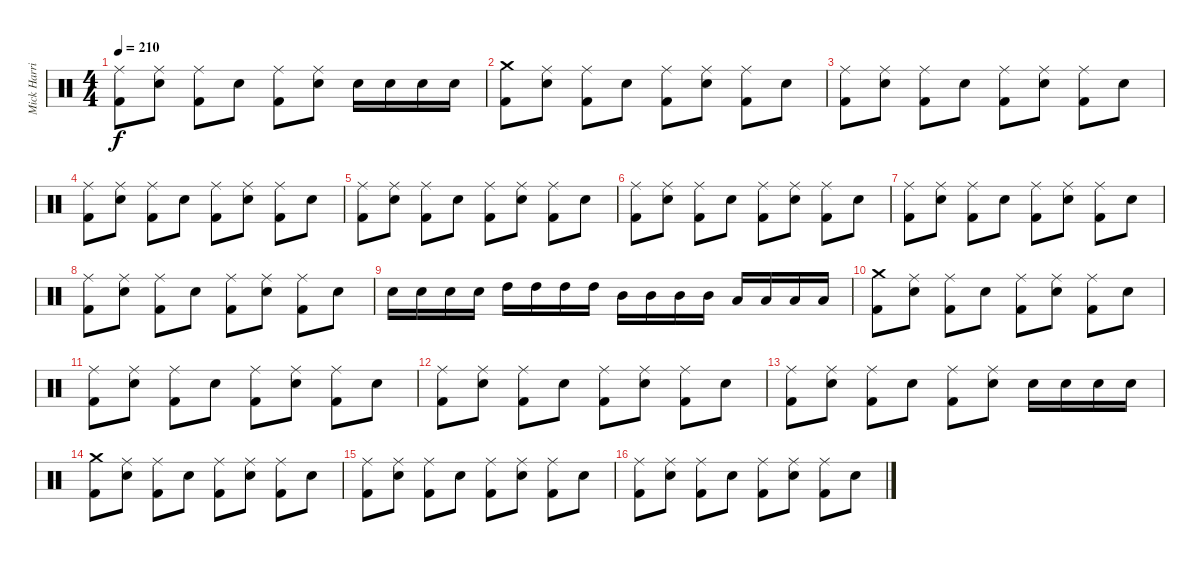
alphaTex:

\track ("Mick Harris (Drums)" "Mick Harri") {instrument percussion}
\staff {score}
\articulation defaults
\ts (4 4)
\tempo 210
\clef neutral
\ks c
("Kick (hit) 2" "Ride (middle)").8{dy f} ("Electric Snare (hit)" "Ride (middle)").8 ("Kick (hit) 2" "Ride (middle)").8 "Electric Snare (hit)".8 ("Kick (hit) 2" "Ride (middle)").8 ("Electric Snare (hit)" "Ride (middle)").8 "Electric Snare (hit)".16 "Electric Snare (hit)".16 "Electric Snare (hit)".16 "Electric Snare (hit)".16 |
("Kick (hit) 2" "Crash medium (hit)").8 ("Electric Snare (hit)" "Ride (middle)").8 ("Kick (hit) 2" "Ride (middle)").8 "Electric Snare (hit)".8 ("Kick (hit) 2" "Ride (middle)").8 ("Electric Snare (hit)" "Ride (middle)").8 ("Kick (hit) 2" "Ride (middle)").8 "Electric Snare (hit)".8 |
("Kick (hit) 2" "Ride (middle)").8 ("Electric Snare (hit)" "Ride (middle)").8 ("Kick (hit) 2" "Ride (middle)").8 "Electric Snare (hit)".8 ("Kick (hit) 2" "Ride (middle)").8 ("Electric Snare (hit)" "Ride (middle)").8 ("Kick (hit) 2" "Ride (middle)").8 "Electric Snare (hit)".8 |
("Kick (hit) 2" "Ride (middle)").8 ("Electric Snare (hit)" "Ride (middle)").8 ("Kick (hit) 2" "Ride (middle)").8 "Electric Snare (hit)".8 ("Kick (hit) 2" "Ride (middle)").8 ("Electric Snare (hit)" "Ride (middle)").8 ("Kick (hit) 2" "Ride (middle)").8 "Electric Snare (hit)".8 |
("Kick (hit) 2" "Ride (middle)").8 ("Electric Snare (hit)" "Ride (middle)").8 ("Kick (hit) 2" "Ride (middle)").8 "Electric Snare (hit)".8 ("Kick (hit) 2" "Ride (middle)").8 ("Electric Snare (hit)" "Ride (middle)").8 ("Kick (hit) 2" "Ride (middle)").8 "Electric Snare (hit)".8 |
("Kick (hit) 2" "Ride (middle)").8 ("Electric Snare (hit)" "Ride (middle)").8 ("Kick (hit) 2" "Ride (middle)").8 "Electric Snare (hit)".8 ("Kick (hit) 2" "Ride (middle)").8 ("Electric Snare (hit)" "Ride (middle)").8 ("Kick (hit) 2" "Ride (middle)").8 "Electric Snare (hit)".8 |
("Kick (hit) 2" "Ride (middle)").8 ("Electric Snare (hit)" "Ride (middle)").8 ("Kick (hit) 2" "Ride (middle)").8 "Electric Snare (hit)".8 ("Kick (hit) 2" "Ride (middle)").8 ("Electric Snare (hit)" "Ride (middle)").8 ("Kick (hit) 2" "Ride (middle)").8 "Electric Snare (hit)".8 |
("Kick (hit) 2" "Ride (middle)").8 ("Electric Snare (hit)" "Ride (middle)").8 ("Kick (hit) 2" "Ride (middle)").8 "Electric Snare (hit)".8 ("Kick (hit) 2" "Ride (middle)").8 ("Electric Snare (hit)" "Ride (middle)").8 ("Kick (hit) 2" "Ride (middle)").8 "Electric Snare (hit)".8 |
"Electric Snare (hit)".16 "Electric Snare (hit)".16 "Electric Snare (hit)".16 "Electric Snare (hit)".16 "High Tom (hit)".16 "High Tom (hit)".16 "High Tom (hit)".16 "High Tom (hit)".16 "Mid Tom (hit)".16 "Mid Tom (hit)".16 "Mid Tom (hit)".16 "Mid Tom (hit)".16 "Low Tom (hit)".16 "Low Tom (hit)".16 "Low Tom (hit)".16 "Low Tom (hit)".16 |
("Kick (hit) 2" "Crash medium (hit)").8 ("Electric Snare (hit)" "Ride (middle)").8 ("Kick (hit) 2" "Ride (middle)").8 "Electric Snare (hit)".8 ("Kick (hit) 2" "Ride (middle)").8 ("Electric Snare (hit)" "Ride (middle)").8 ("Kick (hit) 2" "Ride (middle)").8 "Electric Snare (hit)".8 |
("Kick (hit) 2" "Ride (middle)").8 ("Electric Snare (hit)" "Ride (middle)").8 ("Kick (hit) 2" "Ride (middle)").8 "Electric Snare (hit)".8 ("Kick (hit) 2" "Ride (middle)").8 ("Electric Snare (hit)" "Ride (middle)").8 ("Kick (hit) 2" "Ride (middle)").8 "Electric Snare (hit)".8 |
("Kick (hit) 2" "Ride (middle)").8 ("Electric Snare (hit)" "Ride (middle)").8 ("Kick (hit) 2" "Ride (middle)").8 "Electric Snare (hit)".8 ("Kick (hit) 2" "Ride (middle)").8 ("Electric Snare (hit)" "Ride (middle)").8 ("Kick (hit) 2" "Ride (middle)").8 "Electric Snare (hit)".8 |
("Kick (hit) 2" "Ride (middle)").8 ("Electric Snare (hit)" "Ride (middle)").8 ("Kick (hit) 2" "Ride (middle)").8 "Electric Snare (hit)".8 ("Kick (hit) 2" "Ride (middle)").8 ("Electric Snare (hit)" "Ride (middle)").8 "Electric Snare (hit)".16 "Electric Snare (hit)".16 "Electric Snare (hit)".16 "Electric Snare (hit)".16 |
("Kick (hit) 2" "Crash medium (hit)").8 ("Electric Snare (hit)" "Ride (middle)").8 ("Kick (hit) 2" "Ride (middle)").8 "Electric Snare (hit)".8 ("Kick (hit) 2" "Ride (middle)").8 ("Electric Snare (hit)" "Ride (middle)").8 ("Kick (hit) 2" "Ride (middle)").8 "Electric Snare (hit)".8 |
("Kick (hit) 2" "Ride (middle)").8 ("Electric Snare (hit)" "Ride (middle)").8 ("Kick (hit) 2" "Ride (middle)").8 "Electric Snare (hit)".8 ("Kick (hit) 2" "Ride (middle)").8 ("Electric Snare (hit)" "Ride (middle)").8 ("Kick (hit) 2" "Ride (middle)").8 "Electric Snare (hit)".8 |
("Kick (hit) 2" "Ride (middle)").8 ("Electric Snare (hit)" "Ride (middle)").8 ("Kick (hit) 2" "Ride (middle)").8 "Electric Snare (hit)".8 ("Kick (hit) 2" "Ride (middle)").8 ("Electric Snare (hit)" "Ride (middle)").8 ("Kick (hit) 2" "Ride (middle)").8 "Electric Snare (hit)".8
